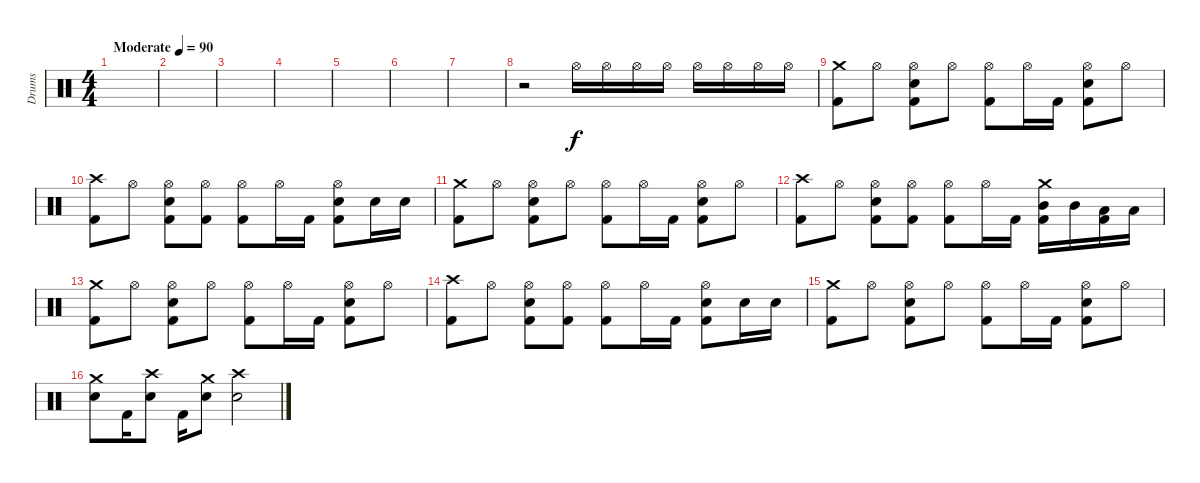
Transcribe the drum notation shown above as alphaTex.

\track ("Drums" "Drums") {instrument percussion}
\staff {score}
\articulation defaults
\ts (4 4)
\tempo (90 "Moderate")
\clef neutral
\ks c
|
|
|
|
|
|
|
r.2{volume 0} "Hi-Hat (open)".16{volume 15} "Hi-Hat (open)".16 "Hi-Hat (open)".16 "Hi-Hat (open)".16 "Hi-Hat (open)".16 "Hi-Hat (open)".16 "Hi-Hat (open)".16 "Hi-Hat (open)".16 |
("Crash medium (hit)" "Kick (hit) 2").8 "Hi-Hat (open)".8 ("Hi-Hat (open)" "Electric Snare (hit)" "Kick (hit) 2").8 "Hi-Hat (open)".8 ("Hi-Hat (open)" "Kick (hit) 2").8 "Hi-Hat (open)".16 "Kick (hit) 2".16 ("Hi-Hat (open)" "Electric Snare (hit)" "Kick (hit) 2").8 "Hi-Hat (open)".8 |
("Crash high (hit)" "Kick (hit) 2").8 "Hi-Hat (open)".8 ("Hi-Hat (open)" "Electric Snare (hit)" "Kick (hit) 2").8 ("Hi-Hat (open)" "Kick (hit) 2").8 ("Hi-Hat (open)" "Kick (hit) 2").8 "Hi-Hat (open)".16 "Kick (hit) 2".16 ("Hi-Hat (open)" "Electric Snare (hit)" "Kick (hit) 2").8 "Electric Snare (hit)".16 "Electric Snare (hit)".16 |
("Crash medium (hit)" "Kick (hit) 2").8 "Hi-Hat (open)".8 ("Hi-Hat (open)" "Electric Snare (hit)" "Kick (hit) 2").8 "Hi-Hat (open)".8 ("Hi-Hat (open)" "Kick (hit) 2").8 "Hi-Hat (open)".16 "Kick (hit) 2".16 ("Hi-Hat (open)" "Electric Snare (hit)" "Kick (hit) 2").8 "Hi-Hat (open)".8 |
("Crash high (hit)" "Kick (hit) 2").8 "Hi-Hat (open)".8 ("Hi-Hat (open)" "Electric Snare (hit)" "Kick (hit) 2").8 ("Hi-Hat (open)" "Kick (hit) 2").8 ("Hi-Hat (open)" "Kick (hit) 2").8 "Hi-Hat (open)".16 "Kick (hit) 2".16 ("Crash medium (hit)" "Mid Tom (hit)" "Kick (hit) 2").16 "Mid Tom (hit)".16 ("Low Tom (hit)" "Kick (hit) 2").16 "Low Tom (hit)".16 |
("Crash medium (hit)" "Kick (hit) 2").8 "Hi-Hat (open)".8 ("Hi-Hat (open)" "Electric Snare (hit)" "Kick (hit) 2").8 "Hi-Hat (open)".8 ("Hi-Hat (open)" "Kick (hit) 2").8 "Hi-Hat (open)".16 "Kick (hit) 2".16 ("Hi-Hat (open)" "Electric Snare (hit)" "Kick (hit) 2").8 "Hi-Hat (open)".8 |
("Crash high (hit)" "Kick (hit) 2").8 "Hi-Hat (open)".8 ("Hi-Hat (open)" "Electric Snare (hit)" "Kick (hit) 2").8 ("Hi-Hat (open)" "Kick (hit) 2").8 ("Hi-Hat (open)" "Kick (hit) 2").8 "Hi-Hat (open)".16 "Kick (hit) 2".16 ("Hi-Hat (open)" "Electric Snare (hit)" "Kick (hit) 2").8 "Electric Snare (hit)".16 "Electric Snare (hit)".16 |
("Crash medium (hit)" "Kick (hit) 2").8 "Hi-Hat (open)".8 ("Hi-Hat (open)" "Electric Snare (hit)" "Kick (hit) 2").8 "Hi-Hat (open)".8 ("Hi-Hat (open)" "Kick (hit) 2").8 "Hi-Hat (open)".16 "Kick (hit) 2".16 ("Hi-Hat (open)" "Electric Snare (hit)" "Kick (hit) 2").8 "Hi-Hat (open)".8 |
("Crash medium (hit)" "Electric Snare (hit)").8 "Kick (hit) 2".16 ("Crash high (hit)" "Electric Snare (hit)").8 "Kick (hit) 2".16 ("Crash medium (hit)" "Electric Snare (hit)").8 ("Crash high (hit)" "Electric Snare (hit)").2
